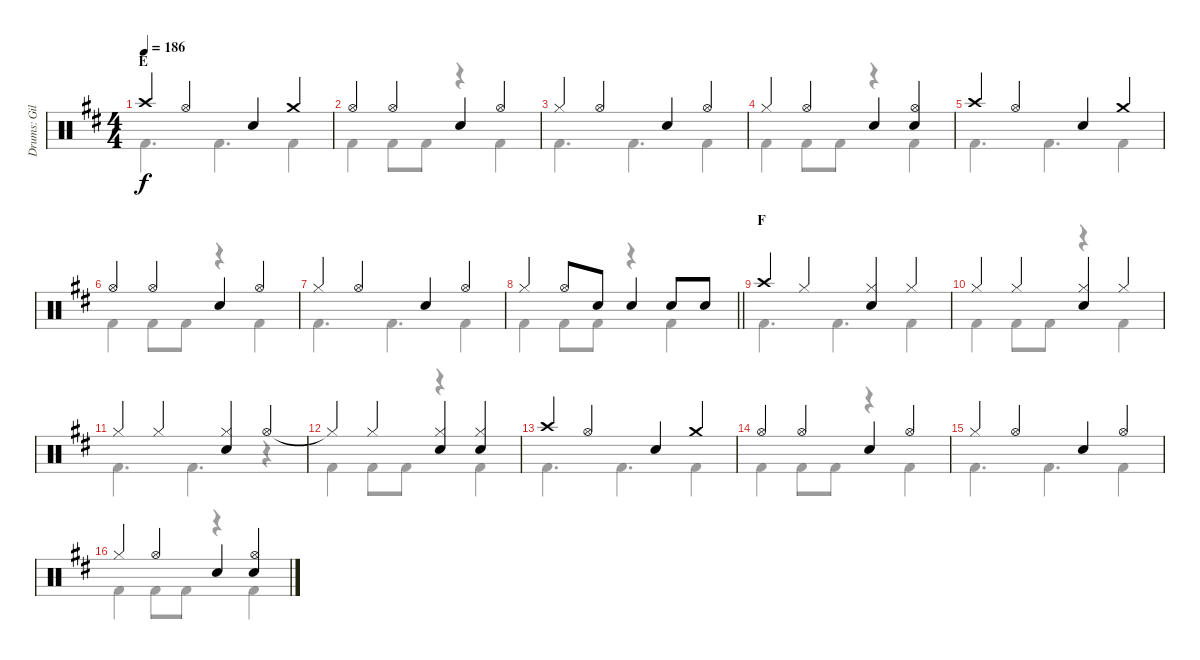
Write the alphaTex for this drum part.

\track ("Drums: Gil" "Drums: Gil") {instrument percussion}
\staff {score}
\articulation defaults
\voice
\ts (4 4)
\section ("" "E")
\tempo 186
\clef neutral
\ks d "Crash high (hit)".4{dy f} "Hi-Hat (open)".4 "Snare (hit) 2".4 "Crash medium (hit)".4
|
"Hi-Hat (open)".4 "Hi-Hat (open)".4 "Snare (hit) 2".4 "Hi-Hat (open)".4 |
"Hi-Hat (closed)".4 "Hi-Hat (open)".4 "Snare (hit) 2".4 "Hi-Hat (open)".4 |
"Hi-Hat (closed)".4 "Hi-Hat (open)".4 "Snare (hit) 2".4 ("Hi-Hat (open)" "Snare (hit) 2").4 |
"Crash high (hit)".4 "Hi-Hat (open)".4 "Snare (hit) 2".4 "Crash medium (hit)".4 |
"Hi-Hat (open)".4 "Hi-Hat (open)".4 "Snare (hit) 2".4 "Hi-Hat (open)".4 |
"Hi-Hat (closed)".4 "Hi-Hat (open)".4 "Snare (hit) 2".4 "Hi-Hat (open)".4 |
\barLineRight lightlight "Hi-Hat (closed)".4 "Hi-Hat (open)".8 "Snare (hit) 2".8 "Snare (hit) 2".4 "Snare (hit) 2".8 "Snare (hit) 2".8
|
\section ("" "F")
"Crash high (hit)".4 "Hi-Hat (closed)".4 ("Hi-Hat (closed)" "Snare (hit) 2").4 "Hi-Hat (closed)".4 |
"Hi-Hat (closed)".4 "Hi-Hat (closed)".4 ("Hi-Hat (closed)" "Snare (hit) 2").4 "Hi-Hat (closed)".4 |
"Hi-Hat (closed)".4 "Hi-Hat (closed)".4 ("Hi-Hat (closed)" "Snare (hit) 2").4 "Hi-Hat (open)".4 |
"Hi-Hat (closed)"{t}.4 "Hi-Hat (closed)".4 ("Hi-Hat (closed)" "Snare (hit) 2").4 ("Hi-Hat (closed)" "Snare (hit) 2").4 |
"Crash high (hit)".4 "Hi-Hat (open)".4 "Snare (hit) 2".4 "Crash medium (hit)".4 |
"Hi-Hat (open)".4 "Hi-Hat (open)".4 "Snare (hit) 2".4 "Hi-Hat (open)".4 |
"Hi-Hat (closed)".4 "Hi-Hat (open)".4 "Snare (hit) 2".4 "Hi-Hat (open)".4 |
"Hi-Hat (closed)".4 "Hi-Hat (open)".4 "Snare (hit) 2".4 ("Hi-Hat (open)" "Snare (hit) 2").4
\voice
\clef neutral
\ottava regular
\simile none
\ks d "Kick (hit) 2".4{d dy f} "Kick (hit) 2".4{d} "Kick (hit) 2".4
|
"Kick (hit) 2".4 "Kick (hit) 2".8 "Kick (hit) 2".8 r.4 "Kick (hit) 2".4 |
"Kick (hit) 2".4{d} "Kick (hit) 2".4{d} "Kick (hit) 2".4 |
"Kick (hit) 2".4 "Kick (hit) 2".8 "Kick (hit) 2".8 r.4 "Kick (hit) 2".4 |
"Kick (hit) 2".4{d} "Kick (hit) 2".4{d} "Kick (hit) 2".4 |
"Kick (hit) 2".4 "Kick (hit) 2".8 "Kick (hit) 2".8 r.4 "Kick (hit) 2".4 |
"Kick (hit) 2".4{d} "Kick (hit) 2".4{d} "Kick (hit) 2".4 |
\barLineRight lightlight "Kick (hit) 2".4 "Kick (hit) 2".8 "Kick (hit) 2".8
r.4 "Kick (hit) 2".4 |
"Kick (hit) 2".4{d} "Kick (hit) 2".4{d} "Kick (hit) 2".4 |
"Kick (hit) 2".4 "Kick (hit) 2".8 "Kick (hit) 2".8 r.4 "Kick (hit) 2".4 |
"Kick (hit) 2".4{d} "Kick (hit) 2".4{d} r.4 |
"Kick (hit) 2".4 "Kick (hit) 2".8 "Kick (hit) 2".8 r.4 "Kick (hit) 2".4 |
"Kick (hit) 2".4{d} "Kick (hit) 2".4{d} "Kick (hit) 2".4 |
"Kick (hit) 2".4 "Kick (hit) 2".8 "Kick (hit) 2".8 r.4 "Kick (hit) 2".4 |
"Kick (hit) 2".4{d} "Kick (hit) 2".4{d} "Kick (hit) 2".4 |
"Kick (hit) 2".4 "Kick (hit) 2".8 "Kick (hit) 2".8 r.4 "Kick (hit) 2".4
